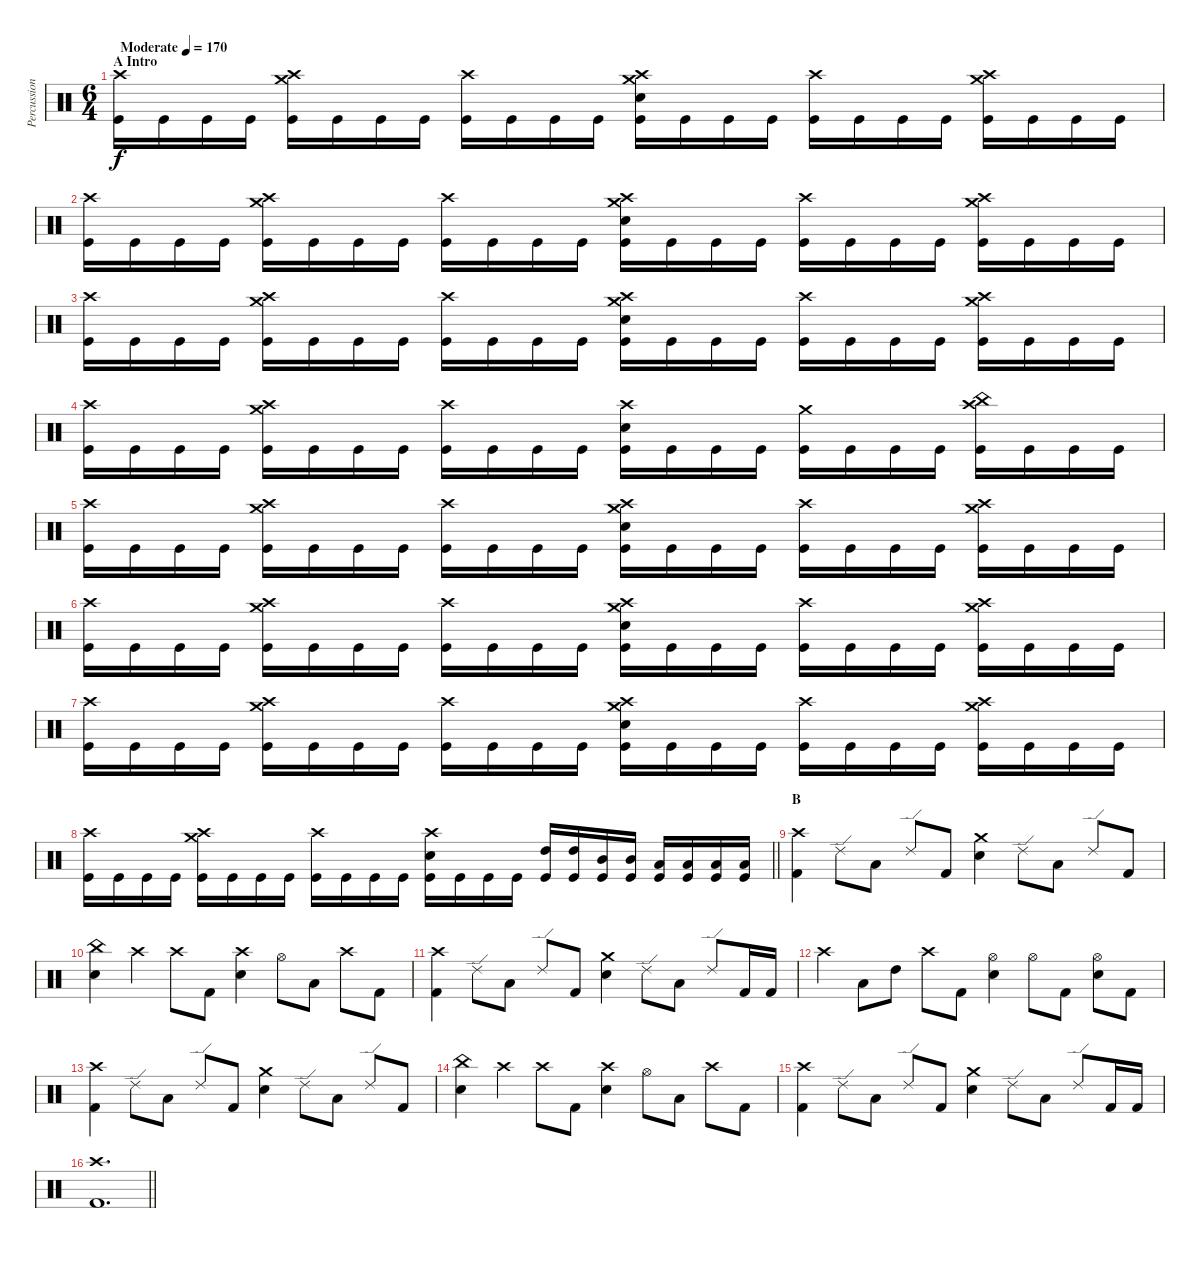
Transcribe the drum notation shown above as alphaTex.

\track ("Percussions" "Percussion") {instrument percussion}
\staff {score}
\articulation defaults
\ts (6 4)
\section ("" "A Intro")
\tempo (170 "Moderate")
\clef neutral
\ks c
("Crash high (hit)" "Kick (hit)").16{dy f} "Kick (hit)".16 "Kick (hit)".16 "Kick (hit)".16 ("Crash high (hit)" "Crash medium (hit)" "Kick (hit)").16 "Kick (hit)".16 "Kick (hit)".16 "Kick (hit)".16 ("Crash high (hit)" "Kick (hit)").16 "Kick (hit)".16 "Kick (hit)".16 "Kick (hit)".16 ("Crash high (hit)" "Crash medium (hit)" "Snare (hit) 2" "Kick (hit)").16 "Kick (hit)".16 "Kick (hit)".16 "Kick (hit)".16 ("Crash high (hit)" "Kick (hit)").16 "Kick (hit)".16 "Kick (hit)".16 "Kick (hit)".16 ("Crash high (hit)" "Crash medium (hit)" "Kick (hit)").16 "Kick (hit)".16 "Kick (hit)".16 "Kick (hit)".16 |
("Crash high (hit)" "Kick (hit)").16 "Kick (hit)".16 "Kick (hit)".16 "Kick (hit)".16 ("Crash high (hit)" "Crash medium (hit)" "Kick (hit)").16 "Kick (hit)".16 "Kick (hit)".16 "Kick (hit)".16 ("Crash high (hit)" "Kick (hit)").16 "Kick (hit)".16 "Kick (hit)".16 "Kick (hit)".16 ("Crash high (hit)" "Crash medium (hit)" "Snare (hit) 2" "Kick (hit)").16 "Kick (hit)".16 "Kick (hit)".16 "Kick (hit)".16 ("Crash high (hit)" "Kick (hit)").16 "Kick (hit)".16 "Kick (hit)".16 "Kick (hit)".16 ("Crash high (hit)" "Crash medium (hit)" "Kick (hit)").16 "Kick (hit)".16 "Kick (hit)".16 "Kick (hit)".16 |
("Crash high (hit)" "Kick (hit)").16 "Kick (hit)".16 "Kick (hit)".16 "Kick (hit)".16 ("Crash high (hit)" "Crash medium (hit)" "Kick (hit)").16 "Kick (hit)".16 "Kick (hit)".16 "Kick (hit)".16 ("Crash high (hit)" "Kick (hit)").16 "Kick (hit)".16 "Kick (hit)".16 "Kick (hit)".16 ("Crash high (hit)" "Crash medium (hit)" "Snare (hit) 2" "Kick (hit)").16 "Kick (hit)".16 "Kick (hit)".16 "Kick (hit)".16 ("Crash high (hit)" "Kick (hit)").16 "Kick (hit)".16 "Kick (hit)".16 "Kick (hit)".16 ("Crash high (hit)" "Crash medium (hit)" "Kick (hit)").16 "Kick (hit)".16 "Kick (hit)".16 "Kick (hit)".16 |
("Crash high (hit)" "Kick (hit)").16 "Kick (hit)".16 "Kick (hit)".16 "Kick (hit)".16 ("Crash high (hit)" "Crash medium (hit)" "Kick (hit)").16 "Kick (hit)".16 "Kick (hit)".16 "Kick (hit)".16 ("Crash high (hit)" "Kick (hit)").16 "Kick (hit)".16 "Kick (hit)".16 "Kick (hit)".16 ("Crash high (hit)" "Snare (hit) 2" "Kick (hit)").16 "Kick (hit)".16 "Kick (hit)".16 "Kick (hit)".16 ("Crash medium (hit)" "Kick (hit)").16 "Kick (hit)".16 "Kick (hit)".16 "Kick (hit)".16 ("Crash high (hit)" "China (hit)" "Kick (hit)").16 "Kick (hit)".16 "Kick (hit)".16 "Kick (hit)".16 |
("Crash high (hit)" "Kick (hit)").16 "Kick (hit)".16 "Kick (hit)".16 "Kick (hit)".16 ("Crash high (hit)" "Crash medium (hit)" "Kick (hit)").16 "Kick (hit)".16 "Kick (hit)".16 "Kick (hit)".16 ("Crash high (hit)" "Kick (hit)").16 "Kick (hit)".16 "Kick (hit)".16 "Kick (hit)".16 ("Crash high (hit)" "Crash medium (hit)" "Snare (hit) 2" "Kick (hit)").16 "Kick (hit)".16 "Kick (hit)".16 "Kick (hit)".16 ("Crash high (hit)" "Kick (hit)").16 "Kick (hit)".16 "Kick (hit)".16 "Kick (hit)".16 ("Crash high (hit)" "Crash medium (hit)" "Kick (hit)").16 "Kick (hit)".16 "Kick (hit)".16 "Kick (hit)".16 |
("Crash high (hit)" "Kick (hit)").16 "Kick (hit)".16 "Kick (hit)".16 "Kick (hit)".16 ("Crash high (hit)" "Crash medium (hit)" "Kick (hit)").16 "Kick (hit)".16 "Kick (hit)".16 "Kick (hit)".16 ("Crash high (hit)" "Kick (hit)").16 "Kick (hit)".16 "Kick (hit)".16 "Kick (hit)".16 ("Crash high (hit)" "Crash medium (hit)" "Snare (hit) 2" "Kick (hit)").16 "Kick (hit)".16 "Kick (hit)".16 "Kick (hit)".16 ("Crash high (hit)" "Kick (hit)").16 "Kick (hit)".16 "Kick (hit)".16 "Kick (hit)".16 ("Crash high (hit)" "Crash medium (hit)" "Kick (hit)").16 "Kick (hit)".16 "Kick (hit)".16 "Kick (hit)".16 |
("Crash high (hit)" "Kick (hit)").16 "Kick (hit)".16 "Kick (hit)".16 "Kick (hit)".16 ("Crash high (hit)" "Crash medium (hit)" "Kick (hit)").16 "Kick (hit)".16 "Kick (hit)".16 "Kick (hit)".16 ("Crash high (hit)" "Kick (hit)").16 "Kick (hit)".16 "Kick (hit)".16 "Kick (hit)".16 ("Crash high (hit)" "Crash medium (hit)" "Snare (hit) 2" "Kick (hit)").16 "Kick (hit)".16 "Kick (hit)".16 "Kick (hit)".16 ("Crash high (hit)" "Kick (hit)").16 "Kick (hit)".16 "Kick (hit)".16 "Kick (hit)".16 ("Crash high (hit)" "Crash medium (hit)" "Kick (hit)").16 "Kick (hit)".16 "Kick (hit)".16 "Kick (hit)".16 |
\barLineRight lightlight
("Crash high (hit)" "Kick (hit)").16 "Kick (hit)".16 "Kick (hit)".16 "Kick (hit)".16 ("Crash high (hit)" "Crash medium (hit)" "Kick (hit)").16 "Kick (hit)".16 "Kick (hit)".16 "Kick (hit)".16 ("Crash high (hit)" "Kick (hit)").16 "Kick (hit)".16 "Kick (hit)".16 "Kick (hit)".16 ("Crash high (hit)" "Snare (hit) 2" "Kick (hit)").16 "Kick (hit)".16 "Kick (hit)".16 "Kick (hit)".16 ("High Tom (hit)" "Kick (hit)").16 ("High Tom (hit)" "Kick (hit)").16 ("Mid Tom (hit)" "Kick (hit)").16 ("Mid Tom (hit)" "Kick (hit)").16 ("Low Tom (hit)" "Kick (hit)").16 ("Low Tom (hit)" "Kick (hit)").16 ("Low Floor Tom (hit)" "Kick (hit)").16 ("Low Floor Tom (hit)" "Kick (hit)").16 |
\section ("" "B")
("Crash high (hit)" "Kick (hit) 2").4 "Ride (edge) 2".8 "Low Tom (hit)".8 "Ride (edge) 2".8 "Kick (hit) 2".8 ("Crash medium (hit)" "Snare (hit) 2").4 "Ride (edge) 2".8 "Low Floor Tom (hit)".8 "Ride (edge) 2".8 "Kick (hit) 2".8 |
("China (hit)" "Snare (hit) 2").4 "Crash high (hit)".4 "Crash high (hit)".8 "Kick (hit) 2".8 ("Crash high (hit)" "Snare (hit) 2").4 "Hi-Hat (open)".8 "Low Tom (hit)".8 "Crash high (hit)".8 "Kick (hit) 2".8 |
("Crash high (hit)" "Kick (hit) 2").4 "Ride (edge) 2".8 "Low Tom (hit)".8 "Ride (edge) 2".8 "Kick (hit) 2".8 ("Crash medium (hit)" "Snare (hit) 2").4 "Ride (edge) 2".8 "Low Floor Tom (hit)".8 "Ride (edge) 2".8 "Kick (hit) 2".16 "Kick (hit) 2".16 |
"Crash high (hit)".4 "Low Tom (hit)".8 "High Tom (hit)".8 "Crash high (hit)".8 "Kick (hit) 2".8 ("Hi-Hat (open)" "Snare (hit) 2").4 "Hi-Hat (open)".8 "Kick (hit) 2".8 ("Hi-Hat (open)" "Snare (hit) 2").8 "Kick (hit) 2".8 |
("Crash high (hit)" "Kick (hit) 2").4 "Ride (edge) 2".8 "Low Tom (hit)".8 "Ride (edge) 2".8 "Kick (hit) 2".8 ("Crash medium (hit)" "Snare (hit) 2").4 "Ride (edge) 2".8 "Low Floor Tom (hit)".8 "Ride (edge) 2".8 "Kick (hit) 2".8 |
("China (hit)" "Snare (hit) 2").4 "Crash high (hit)".4 "Crash high (hit)".8 "Kick (hit) 2".8 ("Crash high (hit)" "Snare (hit) 2").4 "Hi-Hat (open)".8 "Low Tom (hit)".8 "Crash high (hit)".8 "Kick (hit) 2".8 |
("Crash high (hit)" "Kick (hit) 2").4 "Ride (edge) 2".8 "Low Tom (hit)".8 "Ride (edge) 2".8 "Kick (hit) 2".8 ("Crash medium (hit)" "Snare (hit) 2").4 "Ride (edge) 2".8 "Low Floor Tom (hit)".8 "Ride (edge) 2".8 "Kick (hit) 2".16 "Kick (hit) 2".16 |
\barLineRight lightlight
("Crash high (hit)" "Kick (hit) 2").1{d}
